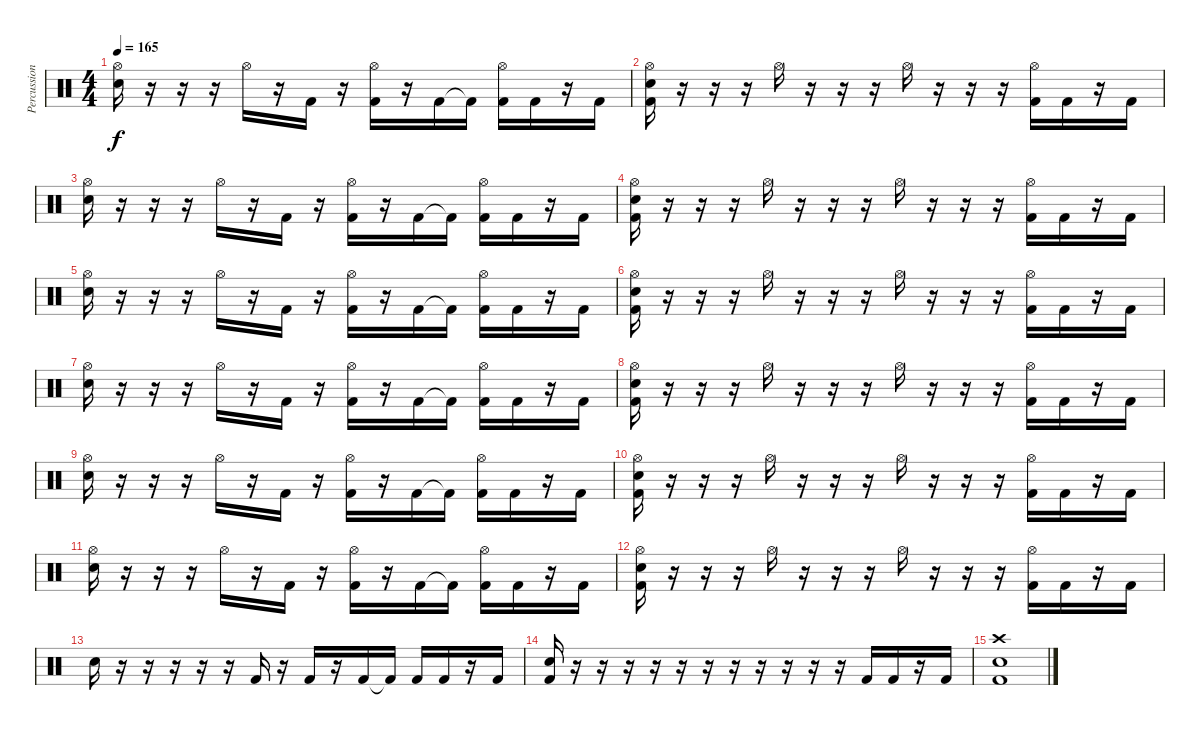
\track ("Percussion" "Percussion") {instrument percussion}
\staff {score}
\articulation defaults
\ts (4 4)
\tempo 165
\clef neutral
\ks c
("Hi-Hat (open)" "Electric Snare (hit)").16{dy f} r.16 r.16 r.16 "Hi-Hat (open)".16 r.16 "Kick (hit) 2".16 r.16 ("Hi-Hat (open)" "Kick (hit) 2").16 r.16 "Kick (hit) 2".16 "Kick (hit) 2"{t}.16 ("Hi-Hat (open)" "Kick (hit) 2").16 "Kick (hit) 2".16 r.16 "Kick (hit) 2".16 |
("Hi-Hat (open)" "Electric Snare (hit)" "Kick (hit) 2").16 r.16 r.16 r.16 "Hi-Hat (open)".16 r.16 r.16 r.16 "Hi-Hat (open)".16 r.16 r.16 r.16 ("Hi-Hat (open)" "Kick (hit) 2").16 "Kick (hit) 2".16 r.16 "Kick (hit) 2".16 |
("Hi-Hat (open)" "Electric Snare (hit)").16 r.16 r.16 r.16 "Hi-Hat (open)".16 r.16 "Kick (hit) 2".16 r.16 ("Hi-Hat (open)" "Kick (hit) 2").16 r.16 "Kick (hit) 2".16 "Kick (hit) 2"{t}.16 ("Hi-Hat (open)" "Kick (hit) 2").16 "Kick (hit) 2".16 r.16 "Kick (hit) 2".16 |
("Hi-Hat (open)" "Electric Snare (hit)" "Kick (hit) 2").16 r.16 r.16 r.16 "Hi-Hat (open)".16 r.16 r.16 r.16 "Hi-Hat (open)".16 r.16 r.16 r.16 ("Hi-Hat (open)" "Kick (hit) 2").16 "Kick (hit) 2".16 r.16 "Kick (hit) 2".16 |
("Hi-Hat (open)" "Electric Snare (hit)").16 r.16 r.16 r.16 "Hi-Hat (open)".16 r.16 "Kick (hit) 2".16 r.16 ("Hi-Hat (open)" "Kick (hit) 2").16 r.16 "Kick (hit) 2".16 "Kick (hit) 2"{t}.16 ("Hi-Hat (open)" "Kick (hit) 2").16 "Kick (hit) 2".16 r.16 "Kick (hit) 2".16 |
("Hi-Hat (open)" "Electric Snare (hit)" "Kick (hit) 2").16 r.16 r.16 r.16 "Hi-Hat (open)".16 r.16 r.16 r.16 "Hi-Hat (open)".16 r.16 r.16 r.16 ("Hi-Hat (open)" "Kick (hit) 2").16 "Kick (hit) 2".16 r.16 "Kick (hit) 2".16 |
("Hi-Hat (open)" "Electric Snare (hit)").16 r.16 r.16 r.16 "Hi-Hat (open)".16 r.16 "Kick (hit) 2".16 r.16 ("Hi-Hat (open)" "Kick (hit) 2").16 r.16 "Kick (hit) 2".16 "Kick (hit) 2"{t}.16 ("Hi-Hat (open)" "Kick (hit) 2").16 "Kick (hit) 2".16 r.16 "Kick (hit) 2".16 |
("Hi-Hat (open)" "Electric Snare (hit)" "Kick (hit) 2").16 r.16 r.16 r.16 "Hi-Hat (open)".16 r.16 r.16 r.16 "Hi-Hat (open)".16 r.16 r.16 r.16 ("Hi-Hat (open)" "Kick (hit) 2").16 "Kick (hit) 2".16 r.16 "Kick (hit) 2".16 |
("Hi-Hat (open)" "Electric Snare (hit)").16 r.16 r.16 r.16 "Hi-Hat (open)".16 r.16 "Kick (hit) 2".16 r.16 ("Hi-Hat (open)" "Kick (hit) 2").16 r.16 "Kick (hit) 2".16 "Kick (hit) 2"{t}.16 ("Hi-Hat (open)" "Kick (hit) 2").16 "Kick (hit) 2".16 r.16 "Kick (hit) 2".16 |
("Hi-Hat (open)" "Electric Snare (hit)" "Kick (hit) 2").16 r.16 r.16 r.16 "Hi-Hat (open)".16 r.16 r.16 r.16 "Hi-Hat (open)".16 r.16 r.16 r.16 ("Hi-Hat (open)" "Kick (hit) 2").16 "Kick (hit) 2".16 r.16 "Kick (hit) 2".16 |
("Hi-Hat (open)" "Electric Snare (hit)").16 r.16 r.16 r.16 "Hi-Hat (open)".16 r.16 "Kick (hit) 2".16 r.16 ("Hi-Hat (open)" "Kick (hit) 2").16 r.16 "Kick (hit) 2".16 "Kick (hit) 2"{t}.16 ("Hi-Hat (open)" "Kick (hit) 2").16 "Kick (hit) 2".16 r.16 "Kick (hit) 2".16 |
("Hi-Hat (open)" "Electric Snare (hit)" "Kick (hit) 2").16 r.16 r.16 r.16 "Hi-Hat (open)".16 r.16 r.16 r.16 "Hi-Hat (open)".16 r.16 r.16 r.16 ("Hi-Hat (open)" "Kick (hit) 2").16 "Kick (hit) 2".16 r.16 "Kick (hit) 2".16 |
"Electric Snare (hit)".16 r.16 r.16 r.16 r.16 r.16 "Kick (hit) 2".16 r.16 "Kick (hit) 2".16 r.16 "Kick (hit) 2".16 "Kick (hit) 2"{t}.16 "Kick (hit) 2".16 "Kick (hit) 2".16 r.16 "Kick (hit) 2".16 |
("Electric Snare (hit)" "Kick (hit) 2").16 r.16 r.16 r.16 r.16 r.16 r.16 r.16 r.16 r.16 r.16 r.16 "Kick (hit) 2".16 "Kick (hit) 2".16 r.16 "Kick (hit) 2".16 |
("Crash high (hit)" "Electric Snare (hit)" "Kick (hit) 2").1
